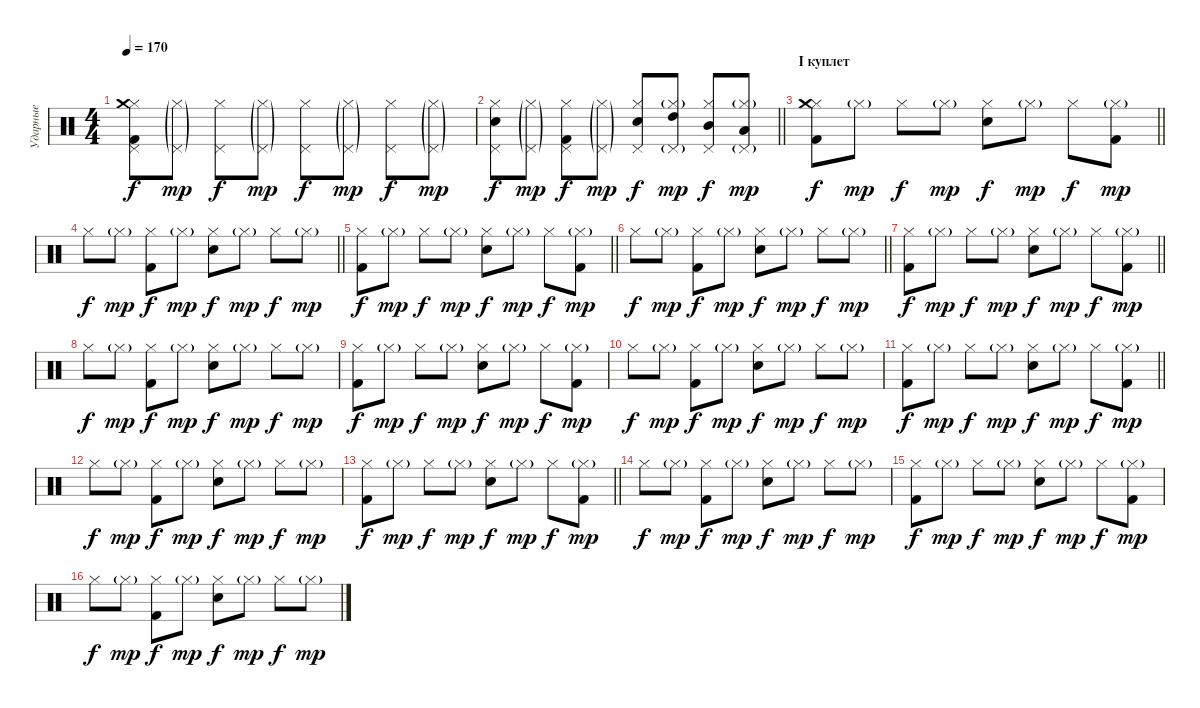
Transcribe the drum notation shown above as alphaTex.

\track ("Ударные" "Ударные") {instrument percussion}
\staff {score}
\articulation defaults
\ts (4 4)
\tempo 170
\clef neutral
\ks c
("Pedal Hi-Hat (hit)" "Hi-Hat (closed)" "Kick (hit) 2" "Crash medium (hit)").8{dy f} ("Pedal Hi-Hat (hit)"{g} "Hi-Hat (closed)"{g}).8{dy mp} ("Pedal Hi-Hat (hit)" "Hi-Hat (closed)").8{dy f} ("Pedal Hi-Hat (hit)"{g} "Hi-Hat (closed)"{g}).8{dy mp} ("Pedal Hi-Hat (hit)" "Hi-Hat (closed)").8{dy f} ("Pedal Hi-Hat (hit)"{g} "Hi-Hat (closed)"{g}).8{dy mp} ("Pedal Hi-Hat (hit)" "Hi-Hat (closed)").8{dy f} ("Pedal Hi-Hat (hit)"{g} "Hi-Hat (closed)"{g}).8{dy mp} |
\barLineRight lightlight
("Pedal Hi-Hat (hit)" "Hi-Hat (closed)" "Electric Snare (hit)").8{dy f} ("Pedal Hi-Hat (hit)"{g} "Hi-Hat (closed)"{g}).8{dy mp} ("Pedal Hi-Hat (hit)" "Hi-Hat (closed)" "Kick (hit) 2").8{dy f} ("Pedal Hi-Hat (hit)"{g} "Hi-Hat (closed)"{g}).8{dy mp} ("Pedal Hi-Hat (hit)" "Hi-Hat (closed)" "Electric Snare (hit)").8{dy f} ("Pedal Hi-Hat (hit)"{g} "Hi-Hat (closed)"{g} "High Tom (hit)").8{dy mp} ("Pedal Hi-Hat (hit)" "Hi-Hat (closed)" "Mid Tom (hit)").8{dy f} ("Pedal Hi-Hat (hit)"{g} "Hi-Hat (closed)"{g} "Low Tom (hit)").8{dy mp} |
\section ("" "I куплет")
\barLineRight lightlight
("Kick (hit) 2" "Hi-Hat (closed)" "Crash medium (hit)").8{dy f} "Hi-Hat (closed)"{g}.8{dy mp} "Hi-Hat (closed)".8{dy f} "Hi-Hat (closed)"{g}.8{dy mp} ("Electric Snare (hit)" "Hi-Hat (closed)").8{dy f} "Hi-Hat (closed)"{g}.8{dy mp} "Hi-Hat (closed)".8{dy f} ("Kick (hit) 2" "Hi-Hat (closed)"{g}).8{dy mp} |
\barLineRight lightlight "Hi-Hat (closed)".8{dy f} "Hi-Hat (closed)"{g}.8{dy mp}
("Kick (hit) 2" "Hi-Hat (closed)").8{dy f} "Hi-Hat (closed)"{g}.8{dy mp} ("Electric Snare (hit)" "Hi-Hat (closed)").8{dy f} "Hi-Hat (closed)"{g}.8{dy mp} "Hi-Hat (closed)".8{dy f} "Hi-Hat (closed)"{g}.8{dy mp} |
\barLineRight lightlight
("Kick (hit) 2" "Hi-Hat (closed)").8{dy f} "Hi-Hat (closed)"{g}.8{dy mp} "Hi-Hat (closed)".8{dy f} "Hi-Hat (closed)"{g}.8{dy mp} ("Electric Snare (hit)" "Hi-Hat (closed)").8{dy f} "Hi-Hat (closed)"{g}.8{dy mp} "Hi-Hat (closed)".8{dy f} ("Kick (hit) 2" "Hi-Hat (closed)"{g}).8{dy mp} |
\barLineRight lightlight "Hi-Hat (closed)".8{dy f} "Hi-Hat (closed)"{g}.8{dy mp}
("Kick (hit) 2" "Hi-Hat (closed)").8{dy f} "Hi-Hat (closed)"{g}.8{dy mp} ("Electric Snare (hit)" "Hi-Hat (closed)").8{dy f} "Hi-Hat (closed)"{g}.8{dy mp} "Hi-Hat (closed)".8{dy f} "Hi-Hat (closed)"{g}.8{dy mp} |
\barLineRight lightlight
("Kick (hit) 2" "Hi-Hat (closed)").8{dy f} "Hi-Hat (closed)"{g}.8{dy mp} "Hi-Hat (closed)".8{dy f} "Hi-Hat (closed)"{g}.8{dy mp} ("Electric Snare (hit)" "Hi-Hat (closed)").8{dy f} "Hi-Hat (closed)"{g}.8{dy mp} "Hi-Hat (closed)".8{dy f} ("Kick (hit) 2" "Hi-Hat (closed)"{g}).8{dy mp} |
"Hi-Hat (closed)".8{dy f} "Hi-Hat (closed)"{g}.8{dy mp} ("Kick (hit) 2" "Hi-Hat (closed)").8{dy f} "Hi-Hat (closed)"{g}.8{dy mp} ("Electric Snare (hit)" "Hi-Hat (closed)").8{dy f} "Hi-Hat (closed)"{g}.8{dy mp} "Hi-Hat (closed)".8{dy f} "Hi-Hat (closed)"{g}.8{dy mp} |
("Kick (hit) 2" "Hi-Hat (closed)").8{dy f} "Hi-Hat (closed)"{g}.8{dy mp} "Hi-Hat (closed)".8{dy f} "Hi-Hat (closed)"{g}.8{dy mp} ("Electric Snare (hit)" "Hi-Hat (closed)").8{dy f} "Hi-Hat (closed)"{g}.8{dy mp} "Hi-Hat (closed)".8{dy f} ("Kick (hit) 2" "Hi-Hat (closed)"{g}).8{dy mp} |
"Hi-Hat (closed)".8{dy f} "Hi-Hat (closed)"{g}.8{dy mp} ("Kick (hit) 2" "Hi-Hat (closed)").8{dy f} "Hi-Hat (closed)"{g}.8{dy mp} ("Electric Snare (hit)" "Hi-Hat (closed)").8{dy f} "Hi-Hat (closed)"{g}.8{dy mp} "Hi-Hat (closed)".8{dy f} "Hi-Hat (closed)"{g}.8{dy mp} |
\barLineRight lightlight
("Kick (hit) 2" "Hi-Hat (closed)").8{dy f} "Hi-Hat (closed)"{g}.8{dy mp} "Hi-Hat (closed)".8{dy f} "Hi-Hat (closed)"{g}.8{dy mp} ("Electric Snare (hit)" "Hi-Hat (closed)").8{dy f} "Hi-Hat (closed)"{g}.8{dy mp} "Hi-Hat (closed)".8{dy f} ("Kick (hit) 2" "Hi-Hat (closed)"{g}).8{dy mp} |
"Hi-Hat (closed)".8{dy f} "Hi-Hat (closed)"{g}.8{dy mp} ("Kick (hit) 2" "Hi-Hat (closed)").8{dy f} "Hi-Hat (closed)"{g}.8{dy mp} ("Electric Snare (hit)" "Hi-Hat (closed)").8{dy f} "Hi-Hat (closed)"{g}.8{dy mp} "Hi-Hat (closed)".8{dy f} "Hi-Hat (closed)"{g}.8{dy mp} |
\barLineRight lightlight
("Kick (hit) 2" "Hi-Hat (closed)").8{dy f} "Hi-Hat (closed)"{g}.8{dy mp} "Hi-Hat (closed)".8{dy f} "Hi-Hat (closed)"{g}.8{dy mp} ("Electric Snare (hit)" "Hi-Hat (closed)").8{dy f} "Hi-Hat (closed)"{g}.8{dy mp} "Hi-Hat (closed)".8{dy f} ("Kick (hit) 2" "Hi-Hat (closed)"{g}).8{dy mp} |
"Hi-Hat (closed)".8{dy f} "Hi-Hat (closed)"{g}.8{dy mp} ("Kick (hit) 2" "Hi-Hat (closed)").8{dy f} "Hi-Hat (closed)"{g}.8{dy mp} ("Electric Snare (hit)" "Hi-Hat (closed)").8{dy f} "Hi-Hat (closed)"{g}.8{dy mp} "Hi-Hat (closed)".8{dy f} "Hi-Hat (closed)"{g}.8{dy mp} |
("Kick (hit) 2" "Hi-Hat (closed)").8{dy f} "Hi-Hat (closed)"{g}.8{dy mp} "Hi-Hat (closed)".8{dy f} "Hi-Hat (closed)"{g}.8{dy mp} ("Electric Snare (hit)" "Hi-Hat (closed)").8{dy f} "Hi-Hat (closed)"{g}.8{dy mp} "Hi-Hat (closed)".8{dy f} ("Kick (hit) 2" "Hi-Hat (closed)"{g}).8{dy mp} |
"Hi-Hat (closed)".8{dy f} "Hi-Hat (closed)"{g}.8{dy mp} ("Kick (hit) 2" "Hi-Hat (closed)").8{dy f} "Hi-Hat (closed)"{g}.8{dy mp} ("Electric Snare (hit)" "Hi-Hat (closed)").8{dy f} "Hi-Hat (closed)"{g}.8{dy mp} "Hi-Hat (closed)".8{dy f} "Hi-Hat (closed)"{g}.8{dy mp}
